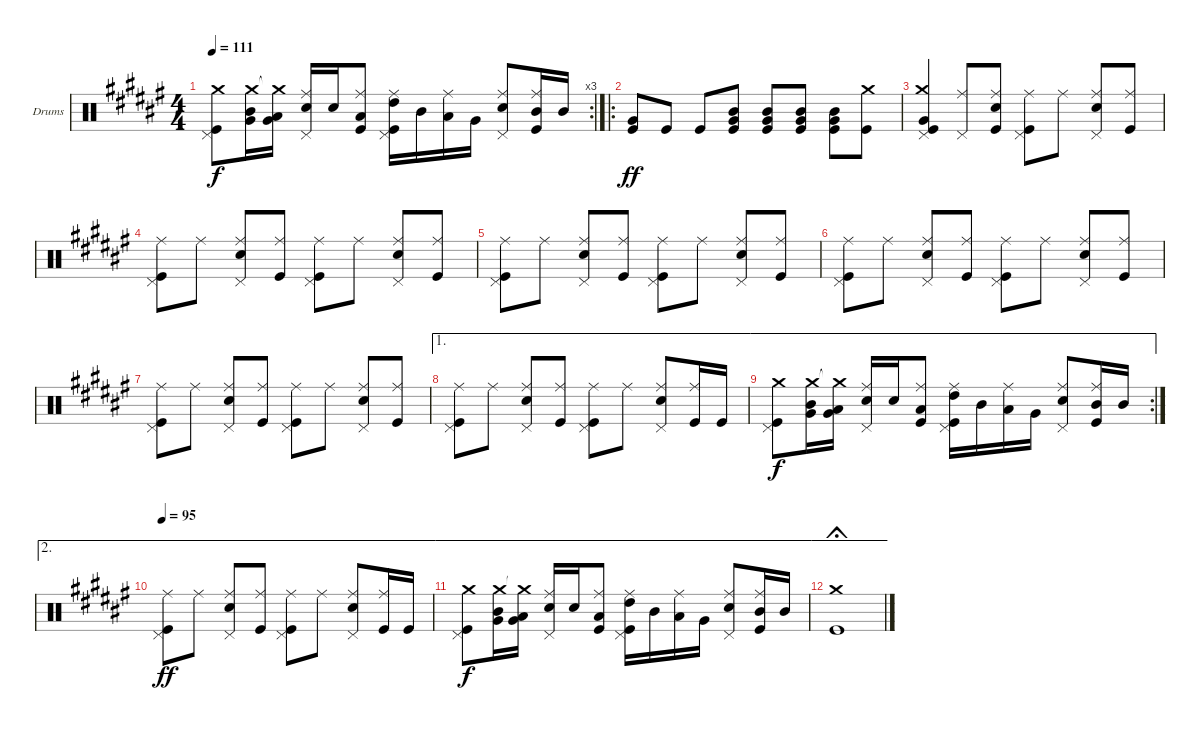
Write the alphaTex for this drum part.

\bracketExtendMode groupsimilarinstruments
\useSystemSignSeparator
\multiTrackTrackNamePolicy allsystems
\firstSystemTrackNameOrientation horizontal
\otherSystemsTrackNameOrientation horizontal
\track ("Drums" "Drums") {instrument percussion}
\staff {score}
\articulation defaults
\rc 3
\ts (4 4)
\tempo 111
\clef neutral
\ks f#
("Kick (hit)" "Pedal Hi-Hat (hit)" "Crash medium (hit)").8{dy f} ("Crash medium (hit)" "Mid Tom (hit)" "Very Low Tom (hit)").16 ("Crash medium (hit)"{t} "Low Tom (hit)" "Very Low Tom (hit)").16 ("Pedal Hi-Hat (hit)" "Snare (hit) 2" "Ride (middle)").16 "Snare (hit) 2".16 ("Kick (hit)" "Ride (middle)" "Low Tom (hit)").8 ("Pedal Hi-Hat (hit)" "Kick (hit)" "Ride (middle)" "High Tom (hit)").16 "Mid Tom (hit)".16 ("Ride (middle)" "Low Tom (hit)").16 "Very Low Tom (hit)".16 ("Pedal Hi-Hat (hit)" "Snare (hit) 2" "Ride (middle)").8 ("Mid Tom (hit)" "Kick (hit)" "Ride (middle)").16 "Mid Tom (hit)".16 |
\ro
("Kick (hit)" "Very Low Tom (hit)").8{dy ff} "Kick (hit)".8 "Kick (hit)".8 ("Very Low Tom (hit)" "Mid Tom (hit)" "Kick (hit)").8 ("Very Low Tom (hit)" "Mid Tom (hit)" "Kick (hit)").8 ("Very Low Tom (hit)" "Mid Tom (hit)" "Kick (hit)").8 ("Very Low Tom (hit)" "Mid Tom (hit)" "Kick (hit)").8 ("Crash medium (hit)" "Kick (hit)").8 |
("Very Low Tom (hit)" "Kick (hit)" "Crash medium (hit)" "Pedal Hi-Hat (hit)").4 ("Ride (middle)" "Pedal Hi-Hat (hit)").8 ("Snare (hit) 2" "Kick (hit)" "Ride (middle)").8 ("Kick (hit)" "Ride (middle)" "Pedal Hi-Hat (hit)").8 "Ride (middle)".8 ("Snare (hit) 2" "Ride (middle)" "Pedal Hi-Hat (hit)").8 ("Kick (hit)" "Ride (middle)").8 |
("Kick (hit)" "Ride (middle)" "Pedal Hi-Hat (hit)").8 "Ride (middle)".8 ("Snare (hit) 2" "Ride (middle)" "Pedal Hi-Hat (hit)").8 ("Kick (hit)" "Ride (middle)").8 ("Kick (hit)" "Ride (middle)" "Pedal Hi-Hat (hit)").8 "Ride (middle)".8 ("Snare (hit) 2" "Ride (middle)" "Pedal Hi-Hat (hit)").8 ("Kick (hit)" "Ride (middle)").8 |
("Kick (hit)" "Ride (middle)" "Pedal Hi-Hat (hit)").8 "Ride (middle)".8 ("Snare (hit) 2" "Ride (middle)" "Pedal Hi-Hat (hit)").8 ("Kick (hit)" "Ride (middle)").8 ("Kick (hit)" "Ride (middle)" "Pedal Hi-Hat (hit)").8 "Ride (middle)".8 ("Snare (hit) 2" "Ride (middle)" "Pedal Hi-Hat (hit)").8 ("Kick (hit)" "Ride (middle)").8 |
("Kick (hit)" "Ride (middle)" "Pedal Hi-Hat (hit)").8 "Ride (middle)".8 ("Snare (hit) 2" "Ride (middle)" "Pedal Hi-Hat (hit)").8 ("Kick (hit)" "Ride (middle)").8 ("Kick (hit)" "Ride (middle)" "Pedal Hi-Hat (hit)").8 "Ride (middle)".8 ("Snare (hit) 2" "Ride (middle)" "Pedal Hi-Hat (hit)").8 ("Kick (hit)" "Ride (middle)").8 |
("Kick (hit)" "Ride (middle)" "Pedal Hi-Hat (hit)").8 "Ride (middle)".8 ("Snare (hit) 2" "Ride (middle)" "Pedal Hi-Hat (hit)").8 ("Kick (hit)" "Ride (middle)").8 ("Kick (hit)" "Ride (middle)" "Pedal Hi-Hat (hit)").8 "Ride (middle)".8 ("Snare (hit) 2" "Ride (middle)" "Pedal Hi-Hat (hit)").8 ("Kick (hit)" "Ride (middle)").8 |
\ae 1
("Kick (hit)" "Ride (middle)" "Pedal Hi-Hat (hit)").8 "Ride (middle)".8 ("Snare (hit) 2" "Ride (middle)" "Pedal Hi-Hat (hit)").8 ("Kick (hit)" "Ride (middle)").8 ("Kick (hit)" "Ride (middle)" "Pedal Hi-Hat (hit)").8 "Ride (middle)".8 ("Snare (hit) 2" "Ride (middle)" "Pedal Hi-Hat (hit)").8 ("Kick (hit)" "Ride (middle)").16 "Kick (hit)".16 |
\ae 1
\rc 2
("Kick (hit)" "Pedal Hi-Hat (hit)" "Crash medium (hit)").8{dy f} ("Crash medium (hit)" "Mid Tom (hit)" "Very Low Tom (hit)").16 ("Crash medium (hit)"{t} "Low Tom (hit)" "Very Low Tom (hit)").16 ("Pedal Hi-Hat (hit)" "Snare (hit) 2" "Ride (middle)").16 "Snare (hit) 2".16 ("Kick (hit)" "Ride (middle)" "Low Tom (hit)").8 ("Pedal Hi-Hat (hit)" "Kick (hit)" "Ride (middle)" "High Tom (hit)").16 "Mid Tom (hit)".16 ("Ride (middle)" "Low Tom (hit)").16 "Very Low Tom (hit)".16 ("Pedal Hi-Hat (hit)" "Snare (hit) 2" "Ride (middle)").8 ("Mid Tom (hit)" "Kick (hit)" "Ride (middle)").16 "Mid Tom (hit)".16 |
\ae 2
\scale
0.690509
\tempo 95
("Kick (hit)" "Ride (middle)" "Pedal Hi-Hat (hit)").8{dy ff} "Ride (middle)".8 ("Snare (hit) 2" "Ride (middle)" "Pedal Hi-Hat (hit)").8 ("Kick (hit)" "Ride (middle)").8 ("Kick (hit)" "Ride (middle)" "Pedal Hi-Hat (hit)").8 "Ride (middle)".8 ("Snare (hit) 2" "Ride (middle)" "Pedal Hi-Hat (hit)").8 ("Kick (hit)" "Ride (middle)").16 "Kick (hit)".16 |
\ae 2
\scale
0.191447 ("Kick (hit)" "Pedal Hi-Hat (hit)" "Crash medium (hit)").8{dy f} ("Crash medium (hit)" "Mid Tom (hit)" "Very Low Tom (hit)").16 ("Crash medium (hit)"{t} "Low Tom (hit)" "Very Low Tom (hit)").16 ("Pedal Hi-Hat (hit)" "Snare (hit) 2" "Ride (middle)").16 "Snare (hit) 2".16 ("Kick (hit)" "Ride (middle)" "Low Tom (hit)").8 ("Pedal Hi-Hat (hit)" "Kick (hit)" "Ride (middle)" "High Tom (hit)").16 "Mid Tom (hit)".16 ("Ride (middle)" "Low Tom (hit)").16 "Very Low Tom (hit)".16 ("Pedal Hi-Hat (hit)" "Snare (hit) 2" "Ride (middle)").8 ("Mid Tom (hit)" "Kick (hit)" "Ride (middle)").16 "Mid Tom (hit)".16 |
\ae 2
\scale
0.118943 ("Kick (hit)" "Crash medium (hit)").1{fermata (short 0)}
